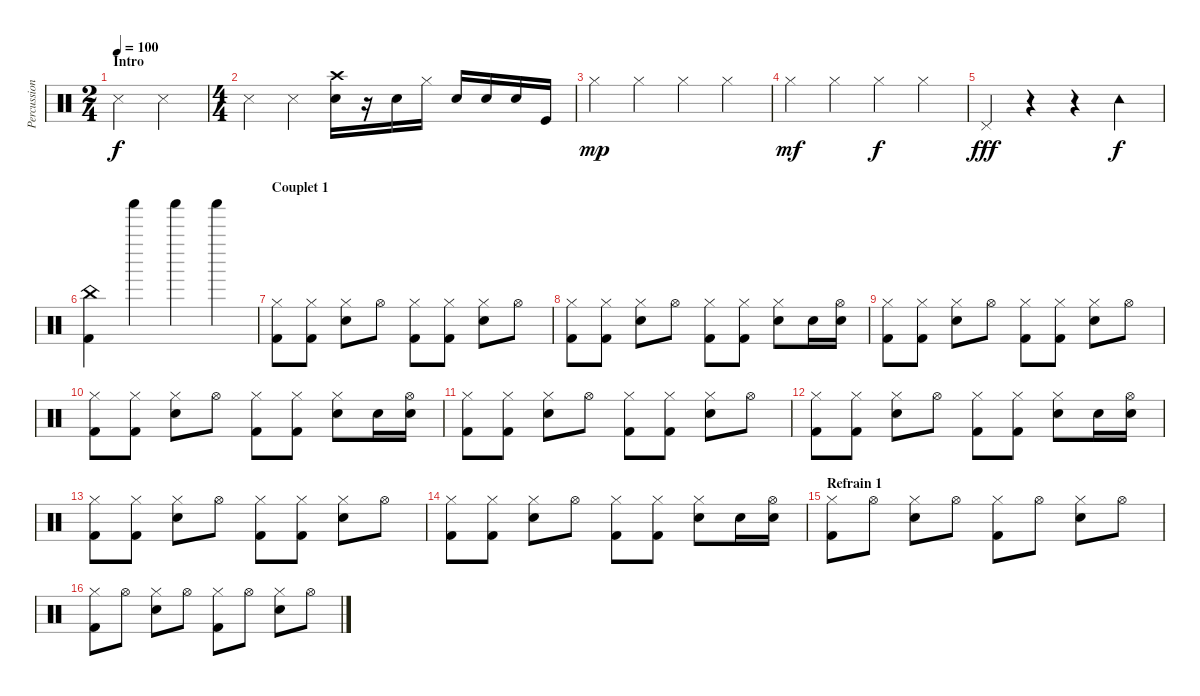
\track ("Percussions" "Percussion") {instrument percussion}
\staff {score}
\articulation defaults
\ts (2 4)
\section ("" "Intro")
\tempo 100
\clef neutral
\ks c "Snare (side stick) 3".4{dy f} "Snare (side stick) 3".4
|
\ts (4 4)
"Snare (side stick) 3".4 "Snare (side stick) 3".4 ("Crash high (hit)" "Snare (hit) 2").16 r.16 "Snare (hit) 2".16 "Hi-Hat (closed)".16 "Snare (hit) 2".16 "Snare (hit) 2".16 "Snare (hit) 2".16 "Kick (hit)".16 |
"Hi-Hat (closed)".4{dy mp} "Hi-Hat (closed)".4 "Hi-Hat (closed)".4 "Hi-Hat (closed)".4 |
"Hi-Hat (closed)".4{dy mf} "Hi-Hat (closed)".4 "Hi-Hat (closed)".4{dy f} "Hi-Hat (closed)".4 |
"Pedal Hi-Hat (hit)".4{dy fff} r.4 r.4 "Tambourine (hit)".4{dy f} |
("China (hit)" "Kick (hit) 2").4 "Shaker (hit)".4 "Shaker (hit)".4 "Shaker (hit)".4 |
\section ("" "Couplet 1")
("Hi-Hat (closed)" "Kick (hit) 2").8 ("Hi-Hat (closed)" "Kick (hit) 2").8 ("Hi-Hat (closed)" "Snare (hit) 2").8 "Hi-Hat (open)".8 ("Hi-Hat (closed)" "Kick (hit) 2").8 ("Hi-Hat (closed)" "Kick (hit) 2").8 ("Hi-Hat (closed)" "Snare (hit) 2").8 "Hi-Hat (open)".8 |
("Hi-Hat (closed)" "Kick (hit) 2").8 ("Hi-Hat (closed)" "Kick (hit) 2").8 ("Hi-Hat (closed)" "Snare (hit) 2").8 "Hi-Hat (open)".8 ("Hi-Hat (closed)" "Kick (hit) 2").8 ("Hi-Hat (closed)" "Kick (hit) 2").8 ("Hi-Hat (closed)" "Snare (hit) 2").8 "Snare (hit) 2".16 ("Hi-Hat (open)" "Snare (hit) 2").16 |
("Hi-Hat (closed)" "Kick (hit) 2").8 ("Hi-Hat (closed)" "Kick (hit) 2").8 ("Hi-Hat (closed)" "Snare (hit) 2").8 "Hi-Hat (open)".8 ("Hi-Hat (closed)" "Kick (hit) 2").8 ("Hi-Hat (closed)" "Kick (hit) 2").8 ("Hi-Hat (closed)" "Snare (hit) 2").8 "Hi-Hat (open)".8 |
("Hi-Hat (closed)" "Kick (hit) 2").8 ("Hi-Hat (closed)" "Kick (hit) 2").8 ("Hi-Hat (closed)" "Snare (hit) 2").8 "Hi-Hat (open)".8 ("Hi-Hat (closed)" "Kick (hit) 2").8 ("Hi-Hat (closed)" "Kick (hit) 2").8 ("Hi-Hat (closed)" "Snare (hit) 2").8 "Snare (hit) 2".16 ("Hi-Hat (open)" "Snare (hit) 2").16 |
("Hi-Hat (closed)" "Kick (hit) 2").8 ("Hi-Hat (closed)" "Kick (hit) 2").8 ("Hi-Hat (closed)" "Snare (hit) 2").8 "Hi-Hat (open)".8 ("Hi-Hat (closed)" "Kick (hit) 2").8 ("Hi-Hat (closed)" "Kick (hit) 2").8 ("Hi-Hat (closed)" "Snare (hit) 2").8 "Hi-Hat (open)".8 |
("Hi-Hat (closed)" "Kick (hit) 2").8 ("Hi-Hat (closed)" "Kick (hit) 2").8 ("Hi-Hat (closed)" "Snare (hit) 2").8 "Hi-Hat (open)".8 ("Hi-Hat (closed)" "Kick (hit) 2").8 ("Hi-Hat (closed)" "Kick (hit) 2").8 ("Hi-Hat (closed)" "Snare (hit) 2").8 "Snare (hit) 2".16 ("Hi-Hat (open)" "Snare (hit) 2").16 |
("Hi-Hat (closed)" "Kick (hit) 2").8 ("Hi-Hat (closed)" "Kick (hit) 2").8 ("Hi-Hat (closed)" "Snare (hit) 2").8 "Hi-Hat (open)".8 ("Hi-Hat (closed)" "Kick (hit) 2").8 ("Hi-Hat (closed)" "Kick (hit) 2").8 ("Hi-Hat (closed)" "Snare (hit) 2").8 "Hi-Hat (open)".8 |
("Hi-Hat (closed)" "Kick (hit) 2").8 ("Hi-Hat (closed)" "Kick (hit) 2").8 ("Hi-Hat (closed)" "Snare (hit) 2").8 "Hi-Hat (open)".8 ("Hi-Hat (closed)" "Kick (hit) 2").8 ("Hi-Hat (closed)" "Kick (hit) 2").8 ("Hi-Hat (closed)" "Snare (hit) 2").8 "Snare (hit) 2".16 ("Hi-Hat (open)" "Snare (hit) 2").16 |
\section ("" "Refrain 1")
("Hi-Hat (closed)" "Kick (hit) 2").8 "Hi-Hat (open)".8 ("Hi-Hat (closed)" "Snare (hit) 2").8 "Hi-Hat (open)".8 ("Hi-Hat (closed)" "Kick (hit) 2").8 "Hi-Hat (open)".8 ("Hi-Hat (closed)" "Snare (hit) 2").8 "Hi-Hat (open)".8 |
("Hi-Hat (closed)" "Kick (hit) 2").8 "Hi-Hat (open)".8 ("Hi-Hat (closed)" "Snare (hit) 2").8 "Hi-Hat (open)".8 ("Hi-Hat (closed)" "Kick (hit) 2").8 "Hi-Hat (open)".8 ("Hi-Hat (closed)" "Snare (hit) 2").8 "Hi-Hat (open)".8
